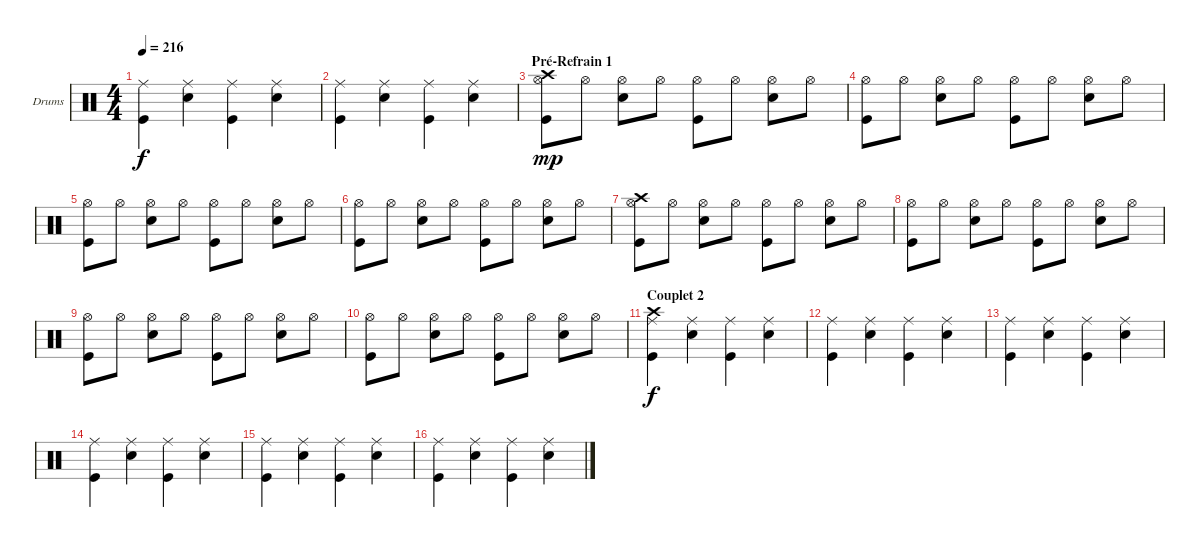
\bracketExtendMode groupsimilarinstruments
\firstSystemTrackNameOrientation horizontal
\otherSystemsTrackNameOrientation horizontal
\chordDiagramsInScore
\track ("Drumkit" "Drums") {instrument percussion}
\staff {score}
\articulation defaults
\ts (4 4)
\tempo 216
\clef neutral
\ks c
("Ride (middle)" "Kick (hit)").4{dy f} ("Ride (middle)" "Snare (hit) 2").4 ("Ride (middle)" "Kick (hit)").4 ("Ride (middle)" "Snare (hit) 2").4 |
("Ride (middle)" "Kick (hit)").4 ("Ride (middle)" "Snare (hit) 2").4 ("Ride (middle)" "Kick (hit)").4 ("Ride (middle)" "Snare (hit) 2").4 |
\section ("" "Pré-Refrain 1")
("Hi-Hat (open)" "Crash high (hit)" "Kick (hit)").8{dy mp} "Hi-Hat (open)".8 ("Hi-Hat (open)" "Snare (hit) 2").8 "Hi-Hat (open)".8 ("Hi-Hat (open)" "Kick (hit)").8 "Hi-Hat (open)".8 ("Hi-Hat (open)" "Snare (hit) 2").8 "Hi-Hat (open)".8 |
("Hi-Hat (open)" "Kick (hit)").8 "Hi-Hat (open)".8 ("Hi-Hat (open)" "Snare (hit) 2").8 "Hi-Hat (open)".8 ("Hi-Hat (open)" "Kick (hit)").8 "Hi-Hat (open)".8 ("Hi-Hat (open)" "Snare (hit) 2").8 "Hi-Hat (open)".8 |
("Hi-Hat (open)" "Kick (hit)").8 "Hi-Hat (open)".8 ("Hi-Hat (open)" "Snare (hit) 2").8 "Hi-Hat (open)".8 ("Hi-Hat (open)" "Kick (hit)").8 "Hi-Hat (open)".8 ("Hi-Hat (open)" "Snare (hit) 2").8 "Hi-Hat (open)".8 |
("Hi-Hat (open)" "Kick (hit)").8 "Hi-Hat (open)".8 ("Hi-Hat (open)" "Snare (hit) 2").8 "Hi-Hat (open)".8 ("Hi-Hat (open)" "Kick (hit)").8 "Hi-Hat (open)".8 ("Hi-Hat (open)" "Snare (hit) 2").8 "Hi-Hat (open)".8 |
("Hi-Hat (open)" "Crash high (hit)" "Kick (hit)").8 "Hi-Hat (open)".8 ("Hi-Hat (open)" "Snare (hit) 2").8 "Hi-Hat (open)".8 ("Hi-Hat (open)" "Kick (hit)").8 "Hi-Hat (open)".8 ("Hi-Hat (open)" "Snare (hit) 2").8 "Hi-Hat (open)".8 |
("Hi-Hat (open)" "Kick (hit)").8 "Hi-Hat (open)".8 ("Hi-Hat (open)" "Snare (hit) 2").8 "Hi-Hat (open)".8 ("Hi-Hat (open)" "Kick (hit)").8 "Hi-Hat (open)".8 ("Hi-Hat (open)" "Snare (hit) 2").8 "Hi-Hat (open)".8 |
("Hi-Hat (open)" "Kick (hit)").8 "Hi-Hat (open)".8 ("Hi-Hat (open)" "Snare (hit) 2").8 "Hi-Hat (open)".8 ("Hi-Hat (open)" "Kick (hit)").8 "Hi-Hat (open)".8 ("Hi-Hat (open)" "Snare (hit) 2").8 "Hi-Hat (open)".8 |
("Hi-Hat (open)" "Kick (hit)").8 "Hi-Hat (open)".8 ("Hi-Hat (open)" "Snare (hit) 2").8 "Hi-Hat (open)".8 ("Hi-Hat (open)" "Kick (hit)").8 "Hi-Hat (open)".8 ("Hi-Hat (open)" "Snare (hit) 2").8 "Hi-Hat (open)".8 |
\section ("" "Couplet 2")
("Ride (middle)" "Crash high (hit)" "Kick (hit)").4{dy f} ("Ride (middle)" "Snare (hit) 2").4 ("Ride (middle)" "Kick (hit)").4 ("Ride (middle)" "Snare (hit) 2").4 |
("Ride (middle)" "Kick (hit)").4 ("Ride (middle)" "Snare (hit) 2").4 ("Ride (middle)" "Kick (hit)").4 ("Ride (middle)" "Snare (hit) 2").4 |
("Ride (middle)" "Kick (hit)").4 ("Ride (middle)" "Snare (hit) 2").4 ("Ride (middle)" "Kick (hit)").4 ("Ride (middle)" "Snare (hit) 2").4 |
("Ride (middle)" "Kick (hit)").4 ("Ride (middle)" "Snare (hit) 2").4 ("Ride (middle)" "Kick (hit)").4 ("Ride (middle)" "Snare (hit) 2").4 |
("Ride (middle)" "Kick (hit)").4 ("Ride (middle)" "Snare (hit) 2").4 ("Ride (middle)" "Kick (hit)").4 ("Ride (middle)" "Snare (hit) 2").4 |
("Ride (middle)" "Kick (hit)").4 ("Ride (middle)" "Snare (hit) 2").4 ("Ride (middle)" "Kick (hit)").4 ("Ride (middle)" "Snare (hit) 2").4
